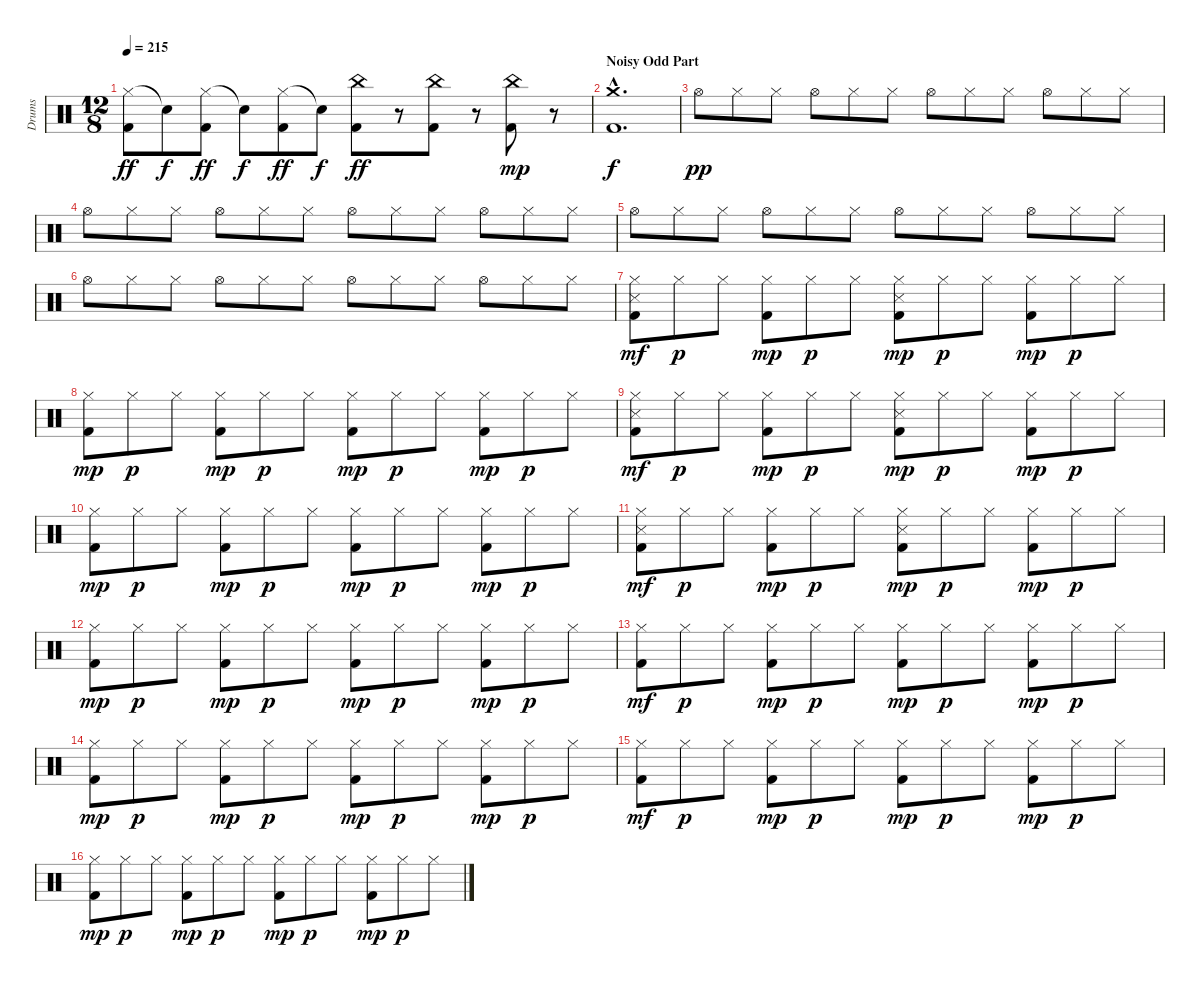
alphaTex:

\track ("Drums" "Drums") {instrument percussion}
\staff {score}
\articulation defaults
\ts (12 8)
\tempo 215
\clef neutral
\ks c
("Hi-Hat (closed)" "Kick (hit) 2").8{dy ff} "Snare (hit)"{t}.8{dy f} ("Hi-Hat (closed)" "Kick (hit) 2").8{dy ff} "Snare (hit)"{t}.8{dy f} ("Hi-Hat (closed)" "Kick (hit) 2").8{dy ff} "Snare (hit)"{t}.8{dy f} ("China (hit)" "Kick (hit) 2").8{dy ff} r.8 ("China (hit)" "Kick (hit) 2").8 r.8 ("China (hit)" "Kick (hit) 2").8{dy mp} r.8 |
\section ("" "Noisy Odd Part")
("Crash medium (hit)"{hac} "Kick (hit) 2"{hac}).1{d dy f} |
"Hi-Hat (open)".8{dy pp} "Hi-Hat (closed)".8 "Hi-Hat (closed)".8 "Hi-Hat (open)".8 "Hi-Hat (closed)".8 "Hi-Hat (closed)".8 "Hi-Hat (open)".8 "Hi-Hat (closed)".8 "Hi-Hat (closed)".8 "Hi-Hat (open)".8 "Hi-Hat (closed)".8 "Hi-Hat (closed)".8 |
"Hi-Hat (open)".8 "Hi-Hat (closed)".8 "Hi-Hat (closed)".8 "Hi-Hat (open)".8 "Hi-Hat (closed)".8 "Hi-Hat (closed)".8 "Hi-Hat (open)".8 "Hi-Hat (closed)".8 "Hi-Hat (closed)".8 "Hi-Hat (open)".8 "Hi-Hat (closed)".8 "Hi-Hat (closed)".8 |
"Hi-Hat (open)".8 "Hi-Hat (closed)".8 "Hi-Hat (closed)".8 "Hi-Hat (open)".8 "Hi-Hat (closed)".8 "Hi-Hat (closed)".8 "Hi-Hat (open)".8 "Hi-Hat (closed)".8 "Hi-Hat (closed)".8 "Hi-Hat (open)".8 "Hi-Hat (closed)".8 "Hi-Hat (closed)".8 |
"Hi-Hat (open)".8 "Hi-Hat (closed)".8 "Hi-Hat (closed)".8 "Hi-Hat (open)".8 "Hi-Hat (closed)".8 "Hi-Hat (closed)".8 "Hi-Hat (open)".8 "Hi-Hat (closed)".8 "Hi-Hat (closed)".8 "Hi-Hat (open)".8 "Hi-Hat (closed)".8 "Hi-Hat (closed)".8 |
("Snare (side stick) 3" "Hi-Hat (closed)" "Kick (hit) 2").8{dy mf} "Hi-Hat (closed)".8{dy p} "Hi-Hat (closed)".8 ("Hi-Hat (closed)" "Kick (hit) 2").8{dy mp} "Hi-Hat (closed)".8{dy p} "Hi-Hat (closed)".8 ("Snare (side stick) 3" "Hi-Hat (closed)" "Kick (hit) 2").8{dy mp} "Hi-Hat (closed)".8{dy p} "Hi-Hat (closed)".8 ("Hi-Hat (closed)" "Kick (hit) 2").8{dy mp} "Hi-Hat (closed)".8{dy p} "Hi-Hat (closed)".8 |
("Hi-Hat (closed)" "Kick (hit) 2").8{dy mp} "Hi-Hat (closed)".8{dy p} "Hi-Hat (closed)".8 ("Hi-Hat (closed)" "Kick (hit) 2").8{dy mp} "Hi-Hat (closed)".8{dy p} "Hi-Hat (closed)".8 ("Hi-Hat (closed)" "Kick (hit) 2").8{dy mp} "Hi-Hat (closed)".8{dy p} "Hi-Hat (closed)".8 ("Hi-Hat (closed)" "Kick (hit) 2").8{dy mp} "Hi-Hat (closed)".8{dy p} "Hi-Hat (closed)".8 |
("Snare (side stick) 3" "Hi-Hat (closed)" "Kick (hit) 2").8{dy mf} "Hi-Hat (closed)".8{dy p} "Hi-Hat (closed)".8 ("Hi-Hat (closed)" "Kick (hit) 2").8{dy mp} "Hi-Hat (closed)".8{dy p} "Hi-Hat (closed)".8 ("Snare (side stick) 3" "Hi-Hat (closed)" "Kick (hit) 2").8{dy mp} "Hi-Hat (closed)".8{dy p} "Hi-Hat (closed)".8 ("Hi-Hat (closed)" "Kick (hit) 2").8{dy mp} "Hi-Hat (closed)".8{dy p} "Hi-Hat (closed)".8 |
("Hi-Hat (closed)" "Kick (hit) 2").8{dy mp} "Hi-Hat (closed)".8{dy p} "Hi-Hat (closed)".8 ("Hi-Hat (closed)" "Kick (hit) 2").8{dy mp} "Hi-Hat (closed)".8{dy p} "Hi-Hat (closed)".8 ("Hi-Hat (closed)" "Kick (hit) 2").8{dy mp} "Hi-Hat (closed)".8{dy p} "Hi-Hat (closed)".8 ("Hi-Hat (closed)" "Kick (hit) 2").8{dy mp} "Hi-Hat (closed)".8{dy p} "Hi-Hat (closed)".8 |
("Snare (side stick) 3" "Hi-Hat (closed)" "Kick (hit) 2").8{dy mf} "Hi-Hat (closed)".8{dy p} "Hi-Hat (closed)".8 ("Hi-Hat (closed)" "Kick (hit) 2").8{dy mp} "Hi-Hat (closed)".8{dy p} "Hi-Hat (closed)".8 ("Snare (side stick) 3" "Hi-Hat (closed)" "Kick (hit) 2").8{dy mp} "Hi-Hat (closed)".8{dy p} "Hi-Hat (closed)".8 ("Hi-Hat (closed)" "Kick (hit) 2").8{dy mp} "Hi-Hat (closed)".8{dy p} "Hi-Hat (closed)".8 |
("Hi-Hat (closed)" "Kick (hit) 2").8{dy mp} "Hi-Hat (closed)".8{dy p} "Hi-Hat (closed)".8 ("Hi-Hat (closed)" "Kick (hit) 2").8{dy mp} "Hi-Hat (closed)".8{dy p} "Hi-Hat (closed)".8 ("Hi-Hat (closed)" "Kick (hit) 2").8{dy mp} "Hi-Hat (closed)".8{dy p} "Hi-Hat (closed)".8 ("Hi-Hat (closed)" "Kick (hit) 2").8{dy mp} "Hi-Hat (closed)".8{dy p} "Hi-Hat (closed)".8 |
("Hi-Hat (closed)" "Kick (hit) 2").8{dy mf} "Hi-Hat (closed)".8{dy p} "Hi-Hat (closed)".8 ("Hi-Hat (closed)" "Kick (hit) 2").8{dy mp} "Hi-Hat (closed)".8{dy p} "Hi-Hat (closed)".8 ("Hi-Hat (closed)" "Kick (hit) 2").8{dy mp} "Hi-Hat (closed)".8{dy p} "Hi-Hat (closed)".8 ("Hi-Hat (closed)" "Kick (hit) 2").8{dy mp} "Hi-Hat (closed)".8{dy p} "Hi-Hat (closed)".8 |
("Hi-Hat (closed)" "Kick (hit) 2").8{dy mp} "Hi-Hat (closed)".8{dy p} "Hi-Hat (closed)".8 ("Hi-Hat (closed)" "Kick (hit) 2").8{dy mp} "Hi-Hat (closed)".8{dy p} "Hi-Hat (closed)".8 ("Hi-Hat (closed)" "Kick (hit) 2").8{dy mp} "Hi-Hat (closed)".8{dy p} "Hi-Hat (closed)".8 ("Hi-Hat (closed)" "Kick (hit) 2").8{dy mp} "Hi-Hat (closed)".8{dy p} "Hi-Hat (closed)".8 |
("Hi-Hat (closed)" "Kick (hit) 2").8{dy mf} "Hi-Hat (closed)".8{dy p} "Hi-Hat (closed)".8 ("Hi-Hat (closed)" "Kick (hit) 2").8{dy mp} "Hi-Hat (closed)".8{dy p} "Hi-Hat (closed)".8 ("Hi-Hat (closed)" "Kick (hit) 2").8{dy mp} "Hi-Hat (closed)".8{dy p} "Hi-Hat (closed)".8 ("Hi-Hat (closed)" "Kick (hit) 2").8{dy mp} "Hi-Hat (closed)".8{dy p} "Hi-Hat (closed)".8 |
("Hi-Hat (closed)" "Kick (hit) 2").8{dy mp} "Hi-Hat (closed)".8{dy p} "Hi-Hat (closed)".8 ("Hi-Hat (closed)" "Kick (hit) 2").8{dy mp} "Hi-Hat (closed)".8{dy p} "Hi-Hat (closed)".8 ("Hi-Hat (closed)" "Kick (hit) 2").8{dy mp} "Hi-Hat (closed)".8{dy p} "Hi-Hat (closed)".8 ("Hi-Hat (closed)" "Kick (hit) 2").8{dy mp} "Hi-Hat (closed)".8{dy p} "Hi-Hat (closed)".8
